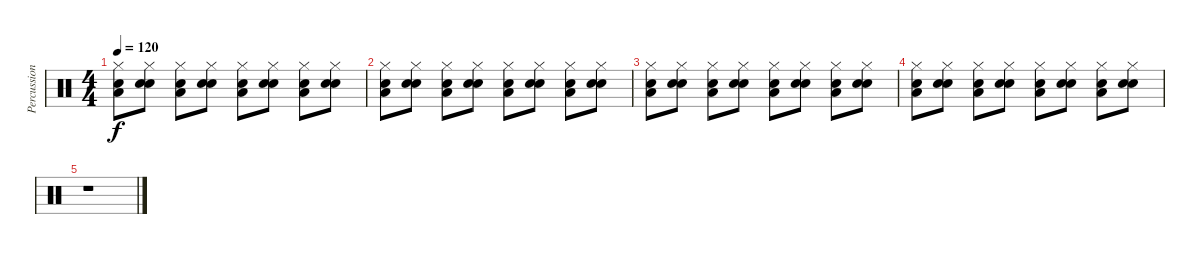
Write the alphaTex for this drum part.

\track ("Percussions" "Percussion") {instrument percussion}
\staff {score}
\articulation defaults
\ts (4 4)
\tempo 120
\clef neutral
\ks c
("Low Floor Tom (hit)" "Snare (hit) 2" "Hi-Hat (closed)").8{dy f} ("Electric Snare (hit)" "Snare (hit) 2" "Hi-Hat (closed)").8 ("Low Floor Tom (hit)" "Snare (hit) 2" "Hi-Hat (closed)").8 ("Electric Snare (hit)" "Snare (hit) 2" "Hi-Hat (closed)").8 ("Low Floor Tom (hit)" "Snare (hit) 2" "Hi-Hat (closed)").8 ("Electric Snare (hit)" "Snare (hit) 2" "Hi-Hat (closed)").8 ("Low Floor Tom (hit)" "Snare (hit) 2" "Hi-Hat (closed)").8 ("Electric Snare (hit)" "Snare (hit) 2" "Hi-Hat (closed)").8 |
("Low Floor Tom (hit)" "Snare (hit) 2" "Hi-Hat (closed)").8 ("Electric Snare (hit)" "Snare (hit) 2" "Hi-Hat (closed)").8 ("Low Floor Tom (hit)" "Snare (hit) 2" "Hi-Hat (closed)").8 ("Electric Snare (hit)" "Snare (hit) 2" "Hi-Hat (closed)").8 ("Low Floor Tom (hit)" "Snare (hit) 2" "Hi-Hat (closed)").8 ("Electric Snare (hit)" "Snare (hit) 2" "Hi-Hat (closed)").8 ("Low Floor Tom (hit)" "Snare (hit) 2" "Hi-Hat (closed)").8 ("Electric Snare (hit)" "Snare (hit) 2" "Hi-Hat (closed)").8 |
("Low Floor Tom (hit)" "Snare (hit) 2" "Hi-Hat (closed)").8 ("Electric Snare (hit)" "Snare (hit) 2" "Hi-Hat (closed)").8 ("Low Floor Tom (hit)" "Snare (hit) 2" "Hi-Hat (closed)").8 ("Electric Snare (hit)" "Snare (hit) 2" "Hi-Hat (closed)").8 ("Low Floor Tom (hit)" "Snare (hit) 2" "Hi-Hat (closed)").8 ("Electric Snare (hit)" "Snare (hit) 2" "Hi-Hat (closed)").8 ("Low Floor Tom (hit)" "Snare (hit) 2" "Hi-Hat (closed)").8 ("Electric Snare (hit)" "Snare (hit) 2" "Hi-Hat (closed)").8 |
("Low Floor Tom (hit)" "Snare (hit) 2" "Hi-Hat (closed)").8 ("Electric Snare (hit)" "Snare (hit) 2" "Hi-Hat (closed)").8 ("Low Floor Tom (hit)" "Snare (hit) 2" "Hi-Hat (closed)").8 ("Electric Snare (hit)" "Snare (hit) 2" "Hi-Hat (closed)").8 ("Low Floor Tom (hit)" "Snare (hit) 2" "Hi-Hat (closed)").8 ("Electric Snare (hit)" "Snare (hit) 2" "Hi-Hat (closed)").8 ("Low Floor Tom (hit)" "Snare (hit) 2" "Hi-Hat (closed)").8 ("Electric Snare (hit)" "Snare (hit) 2" "Hi-Hat (closed)").8 |
r.1
